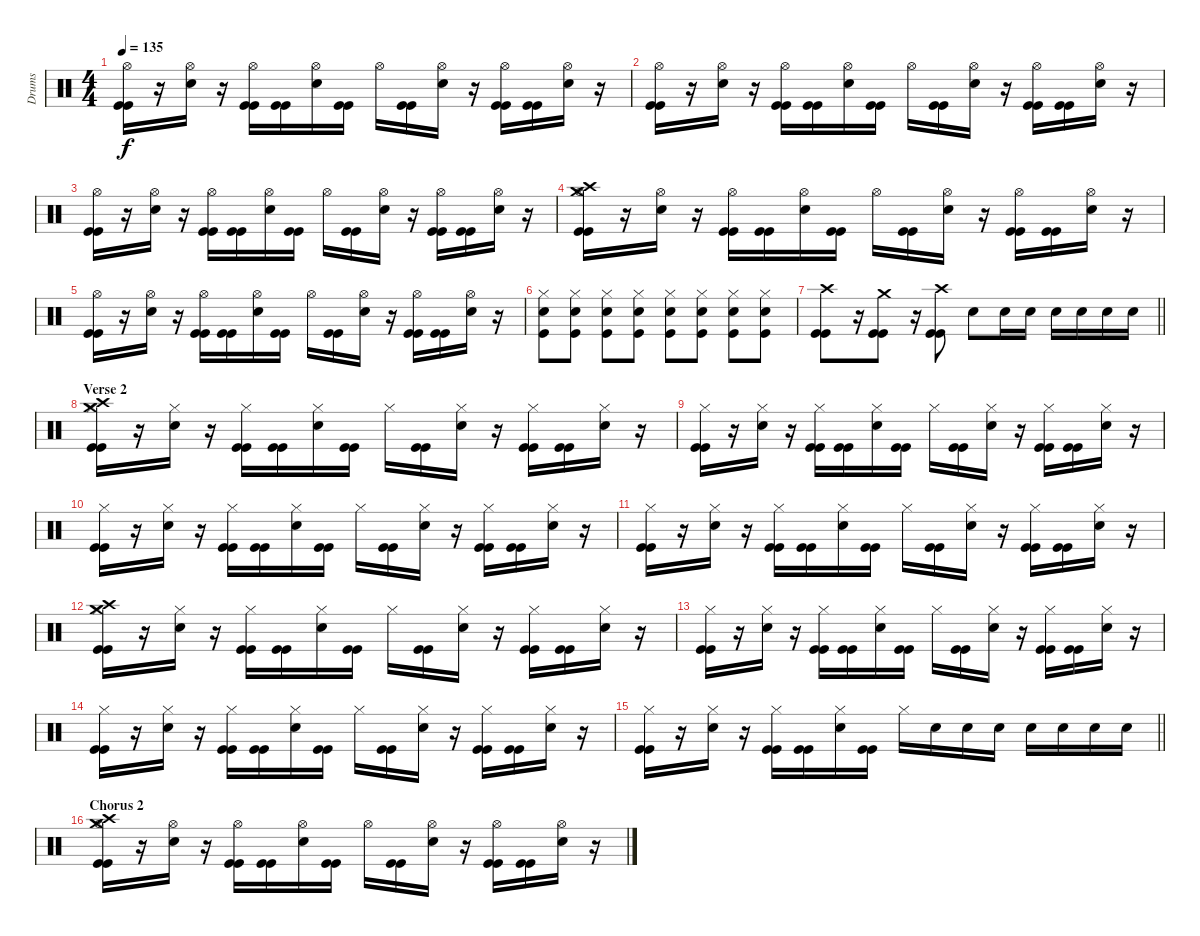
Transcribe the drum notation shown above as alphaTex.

\track ("Drums" "Drums") {instrument percussion}
\staff {score}
\articulation defaults
\ts (4 4)
\tempo 135
\clef neutral
\ks c
("Hi-Hat (open)" "Kick (hit)" "Kick (hit)").16{dy f} r.16 ("Hi-Hat (open)" "Snare (hit) 2").16 r.16 ("Hi-Hat (open)" "Kick (hit)" "Kick (hit)").16 ("Kick (hit)" "Kick (hit)").16 ("Hi-Hat (open)" "Snare (hit) 2").16 ("Kick (hit)" "Kick (hit)").16 "Hi-Hat (open)".16 ("Kick (hit)" "Kick (hit)").16 ("Hi-Hat (open)" "Snare (hit) 2").16 r.16 ("Hi-Hat (open)" "Kick (hit)" "Kick (hit)").16 ("Kick (hit)" "Kick (hit)").16 ("Hi-Hat (open)" "Snare (hit) 2").16 r.16 |
("Hi-Hat (open)" "Kick (hit)" "Kick (hit)").16 r.16 ("Hi-Hat (open)" "Snare (hit) 2").16 r.16 ("Hi-Hat (open)" "Kick (hit)" "Kick (hit)").16 ("Kick (hit)" "Kick (hit)").16 ("Hi-Hat (open)" "Snare (hit) 2").16 ("Kick (hit)" "Kick (hit)").16 "Hi-Hat (open)".16 ("Kick (hit)" "Kick (hit)").16 ("Hi-Hat (open)" "Snare (hit) 2").16 r.16 ("Hi-Hat (open)" "Kick (hit)" "Kick (hit)").16 ("Kick (hit)" "Kick (hit)").16 ("Hi-Hat (open)" "Snare (hit) 2").16 r.16 |
("Hi-Hat (open)" "Kick (hit)" "Kick (hit)").16 r.16 ("Hi-Hat (open)" "Snare (hit) 2").16 r.16 ("Hi-Hat (open)" "Kick (hit)" "Kick (hit)").16 ("Kick (hit)" "Kick (hit)").16 ("Hi-Hat (open)" "Snare (hit) 2").16 ("Kick (hit)" "Kick (hit)").16 "Hi-Hat (open)".16 ("Kick (hit)" "Kick (hit)").16 ("Hi-Hat (open)" "Snare (hit) 2").16 r.16 ("Hi-Hat (open)" "Kick (hit)" "Kick (hit)").16 ("Kick (hit)" "Kick (hit)").16 ("Hi-Hat (open)" "Snare (hit) 2").16 r.16 |
("Crash medium (hit)" "Crash high (hit)" "Hi-Hat (open)" "Kick (hit)" "Kick (hit)").16 r.16 ("Hi-Hat (open)" "Snare (hit) 2").16 r.16 ("Hi-Hat (open)" "Kick (hit)" "Kick (hit)").16 ("Kick (hit)" "Kick (hit)").16 ("Hi-Hat (open)" "Snare (hit) 2").16 ("Kick (hit)" "Kick (hit)").16 "Hi-Hat (open)".16 ("Kick (hit)" "Kick (hit)").16 ("Hi-Hat (open)" "Snare (hit) 2").16 r.16 ("Hi-Hat (open)" "Kick (hit)" "Kick (hit)").16 ("Kick (hit)" "Kick (hit)").16 ("Hi-Hat (open)" "Snare (hit) 2").16 r.16 |
("Hi-Hat (open)" "Kick (hit)" "Kick (hit)").16 r.16 ("Hi-Hat (open)" "Snare (hit) 2").16 r.16 ("Hi-Hat (open)" "Kick (hit)" "Kick (hit)").16 ("Kick (hit)" "Kick (hit)").16 ("Hi-Hat (open)" "Snare (hit) 2").16 ("Kick (hit)" "Kick (hit)").16 "Hi-Hat (open)".16 ("Kick (hit)" "Kick (hit)").16 ("Hi-Hat (open)" "Snare (hit) 2").16 r.16 ("Hi-Hat (open)" "Kick (hit)" "Kick (hit)").16 ("Kick (hit)" "Kick (hit)").16 ("Hi-Hat (open)" "Snare (hit) 2").16 r.16 |
("Hi-Hat (closed)" "Snare (hit) 2" "Kick (hit)").8 ("Hi-Hat (closed)" "Snare (hit) 2" "Kick (hit)").8 ("Hi-Hat (closed)" "Snare (hit) 2" "Kick (hit)").8 ("Hi-Hat (closed)" "Snare (hit) 2" "Kick (hit)").8 ("Hi-Hat (closed)" "Snare (hit) 2" "Kick (hit)").8 ("Hi-Hat (closed)" "Snare (hit) 2" "Kick (hit)").8 ("Hi-Hat (closed)" "Snare (hit) 2" "Kick (hit)").8 ("Hi-Hat (closed)" "Snare (hit) 2" "Kick (hit)").8 |
\barLineRight lightlight
("Crash high (hit)" "Kick (hit)" "Kick (hit)").8 r.16 ("Crash medium (hit)" "Kick (hit)" "Kick (hit)").8 r.16 ("Crash high (hit)" "Kick (hit)" "Kick (hit)").8 "Snare (hit) 2".8 "Snare (hit) 2".16 "Snare (hit) 2".16 "Snare (hit) 2".16 "Snare (hit) 2".16 "Snare (hit) 2".16 "Snare (hit) 2".16 |
\section ("" "Verse 2")
("Crash medium (hit)" "Crash high (hit)" "Hi-Hat (closed)" "Kick (hit)" "Kick (hit)").16 r.16 ("Hi-Hat (closed)" "Snare (hit) 2").16 r.16 ("Hi-Hat (closed)" "Kick (hit)" "Kick (hit)").16 ("Kick (hit)" "Kick (hit)").16 ("Hi-Hat (closed)" "Snare (hit) 2").16 ("Kick (hit)" "Kick (hit)").16 "Hi-Hat (closed)".16 ("Kick (hit)" "Kick (hit)").16 ("Hi-Hat (closed)" "Snare (hit) 2").16 r.16 ("Hi-Hat (closed)" "Kick (hit)" "Kick (hit)").16 ("Kick (hit)" "Kick (hit)").16 ("Hi-Hat (closed)" "Snare (hit) 2").16 r.16 |
("Hi-Hat (closed)" "Kick (hit)" "Kick (hit)").16 r.16 ("Hi-Hat (closed)" "Snare (hit) 2").16 r.16 ("Hi-Hat (closed)" "Kick (hit)" "Kick (hit)").16 ("Kick (hit)" "Kick (hit)").16 ("Hi-Hat (closed)" "Snare (hit) 2").16 ("Kick (hit)" "Kick (hit)").16 "Hi-Hat (closed)".16 ("Kick (hit)" "Kick (hit)").16 ("Hi-Hat (closed)" "Snare (hit) 2").16 r.16 ("Hi-Hat (closed)" "Kick (hit)" "Kick (hit)").16 ("Kick (hit)" "Kick (hit)").16 ("Hi-Hat (closed)" "Snare (hit) 2").16 r.16 |
("Hi-Hat (closed)" "Kick (hit)" "Kick (hit)").16 r.16 ("Hi-Hat (closed)" "Snare (hit) 2").16 r.16 ("Hi-Hat (closed)" "Kick (hit)" "Kick (hit)").16 ("Kick (hit)" "Kick (hit)").16 ("Hi-Hat (closed)" "Snare (hit) 2").16 ("Kick (hit)" "Kick (hit)").16 "Hi-Hat (closed)".16 ("Kick (hit)" "Kick (hit)").16 ("Hi-Hat (closed)" "Snare (hit) 2").16 r.16 ("Hi-Hat (closed)" "Kick (hit)" "Kick (hit)").16 ("Kick (hit)" "Kick (hit)").16 ("Hi-Hat (closed)" "Snare (hit) 2").16 r.16 |
("Hi-Hat (closed)" "Kick (hit)" "Kick (hit)").16 r.16 ("Hi-Hat (closed)" "Snare (hit) 2").16 r.16 ("Hi-Hat (closed)" "Kick (hit)" "Kick (hit)").16 ("Kick (hit)" "Kick (hit)").16 ("Hi-Hat (closed)" "Snare (hit) 2").16 ("Kick (hit)" "Kick (hit)").16 "Hi-Hat (closed)".16 ("Kick (hit)" "Kick (hit)").16 ("Hi-Hat (closed)" "Snare (hit) 2").16 r.16 ("Hi-Hat (closed)" "Kick (hit)" "Kick (hit)").16 ("Kick (hit)" "Kick (hit)").16 ("Hi-Hat (closed)" "Snare (hit) 2").16 r.16 |
("Crash medium (hit)" "Crash high (hit)" "Hi-Hat (closed)" "Kick (hit)" "Kick (hit)").16 r.16 ("Hi-Hat (closed)" "Snare (hit) 2").16 r.16 ("Hi-Hat (closed)" "Kick (hit)" "Kick (hit)").16 ("Kick (hit)" "Kick (hit)").16 ("Hi-Hat (closed)" "Snare (hit) 2").16 ("Kick (hit)" "Kick (hit)").16 "Hi-Hat (closed)".16 ("Kick (hit)" "Kick (hit)").16 ("Hi-Hat (closed)" "Snare (hit) 2").16 r.16 ("Hi-Hat (closed)" "Kick (hit)" "Kick (hit)").16 ("Kick (hit)" "Kick (hit)").16 ("Hi-Hat (closed)" "Snare (hit) 2").16 r.16 |
("Hi-Hat (closed)" "Kick (hit)" "Kick (hit)").16 r.16 ("Hi-Hat (closed)" "Snare (hit) 2").16 r.16 ("Hi-Hat (closed)" "Kick (hit)" "Kick (hit)").16 ("Kick (hit)" "Kick (hit)").16 ("Hi-Hat (closed)" "Snare (hit) 2").16 ("Kick (hit)" "Kick (hit)").16 "Hi-Hat (closed)".16 ("Kick (hit)" "Kick (hit)").16 ("Hi-Hat (closed)" "Snare (hit) 2").16 r.16 ("Hi-Hat (closed)" "Kick (hit)" "Kick (hit)").16 ("Kick (hit)" "Kick (hit)").16 ("Hi-Hat (closed)" "Snare (hit) 2").16 r.16 |
("Hi-Hat (closed)" "Kick (hit)" "Kick (hit)").16 r.16 ("Hi-Hat (closed)" "Snare (hit) 2").16 r.16 ("Hi-Hat (closed)" "Kick (hit)" "Kick (hit)").16 ("Kick (hit)" "Kick (hit)").16 ("Hi-Hat (closed)" "Snare (hit) 2").16 ("Kick (hit)" "Kick (hit)").16 "Hi-Hat (closed)".16 ("Kick (hit)" "Kick (hit)").16 ("Hi-Hat (closed)" "Snare (hit) 2").16 r.16 ("Hi-Hat (closed)" "Kick (hit)" "Kick (hit)").16 ("Kick (hit)" "Kick (hit)").16 ("Hi-Hat (closed)" "Snare (hit) 2").16 r.16 |
\barLineRight lightlight
("Hi-Hat (closed)" "Kick (hit)" "Kick (hit)").16 r.16 ("Hi-Hat (closed)" "Snare (hit) 2").16 r.16 ("Hi-Hat (closed)" "Kick (hit)" "Kick (hit)").16 ("Kick (hit)" "Kick (hit)").16 ("Hi-Hat (closed)" "Snare (hit) 2").16 ("Kick (hit)" "Kick (hit)").16 "Hi-Hat (closed)".16 "Snare (hit) 2".16 "Snare (hit) 2".16 "Snare (hit) 2".16 "Snare (hit) 2".16 "Snare (hit) 2".16 "Snare (hit) 2".16 "Snare (hit) 2".16 |
\section ("" "Chorus 2")
("Crash medium (hit)" "Crash high (hit)" "Hi-Hat (open)" "Kick (hit)" "Kick (hit)").16 r.16 ("Hi-Hat (open)" "Snare (hit) 2").16 r.16 ("Hi-Hat (open)" "Kick (hit)" "Kick (hit)").16 ("Kick (hit)" "Kick (hit)").16 ("Hi-Hat (open)" "Snare (hit) 2").16 ("Kick (hit)" "Kick (hit)").16 "Hi-Hat (open)".16 ("Kick (hit)" "Kick (hit)").16 ("Hi-Hat (open)" "Snare (hit) 2").16 r.16 ("Hi-Hat (open)" "Kick (hit)" "Kick (hit)").16 ("Kick (hit)" "Kick (hit)").16 ("Hi-Hat (open)" "Snare (hit) 2").16 r.16
